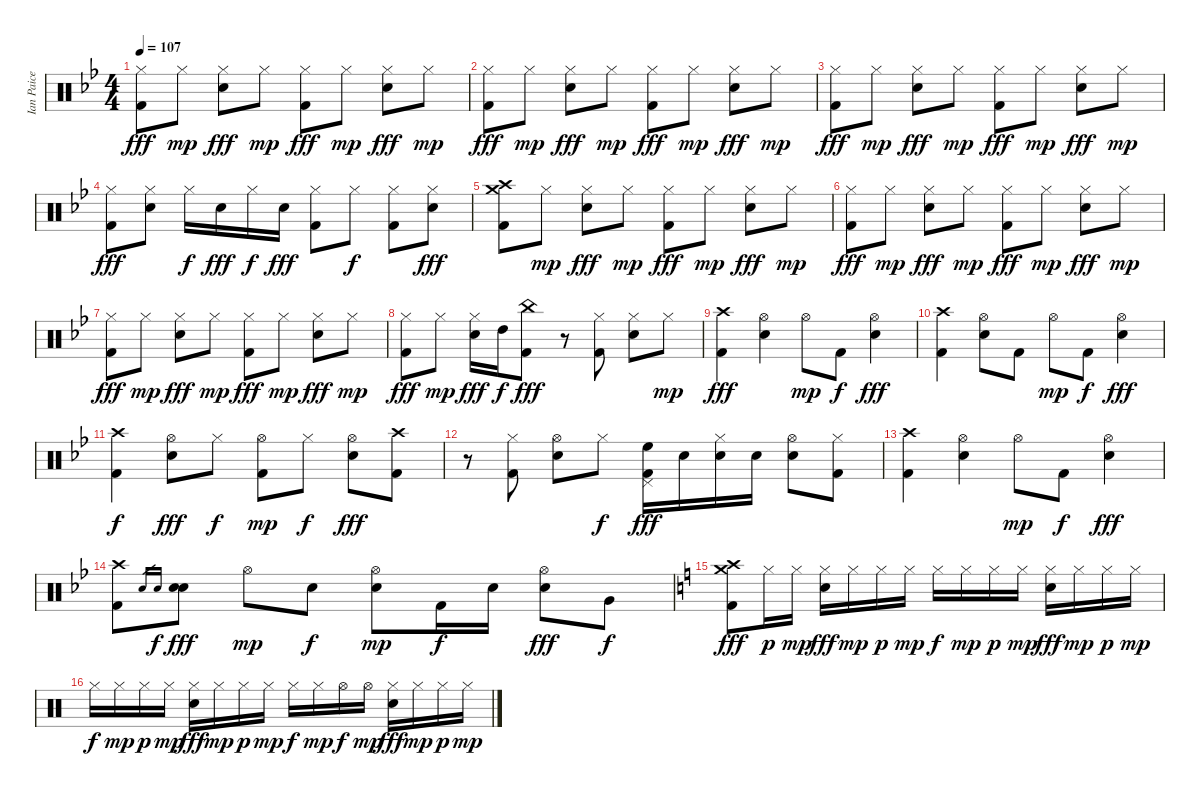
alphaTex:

\track ("Ian Paice" "Ian Paice") {instrument percussion}
\staff {score}
\articulation defaults
\ts (4 4)
\tempo 107
\clef neutral
\ks bb
("Hi-Hat (closed)" "Kick (hit) 2").8{dy fff} "Hi-Hat (closed)".8{dy mp} ("Hi-Hat (closed)" "Electric Snare (hit)").8{dy fff} "Hi-Hat (closed)".8{dy mp} ("Hi-Hat (closed)" "Kick (hit) 2").8{dy fff} "Hi-Hat (closed)".8{dy mp} ("Hi-Hat (closed)" "Electric Snare (hit)").8{dy fff} "Hi-Hat (closed)".8{dy mp} |
("Hi-Hat (closed)" "Kick (hit) 2").8{dy fff} "Hi-Hat (closed)".8{dy mp} ("Hi-Hat (closed)" "Electric Snare (hit)").8{dy fff} "Hi-Hat (closed)".8{dy mp} ("Hi-Hat (closed)" "Kick (hit) 2").8{dy fff} "Hi-Hat (closed)".8{dy mp} ("Hi-Hat (closed)" "Electric Snare (hit)").8{dy fff} "Hi-Hat (closed)".8{dy mp} |
("Hi-Hat (closed)" "Kick (hit) 2").8{dy fff} "Hi-Hat (closed)".8{dy mp} ("Hi-Hat (closed)" "Electric Snare (hit)").8{dy fff} "Hi-Hat (closed)".8{dy mp} ("Hi-Hat (closed)" "Kick (hit) 2").8{dy fff} "Hi-Hat (closed)".8{dy mp} ("Hi-Hat (closed)" "Electric Snare (hit)").8{dy fff} "Hi-Hat (closed)".8{dy mp} |
("Hi-Hat (closed)" "Kick (hit) 2").8{dy fff} ("Hi-Hat (closed)" "Electric Snare (hit)").8 "Hi-Hat (closed)".16{dy f} "Electric Snare (hit)".16{dy fff} "Hi-Hat (closed)".16{dy f} "Electric Snare (hit)".16{dy fff} ("Hi-Hat (closed)" "Kick (hit) 2").8 "Hi-Hat (closed)".8{dy f} ("Hi-Hat (closed)" "Kick (hit) 2").8 ("Hi-Hat (closed)" "Electric Snare (hit)").8{dy fff} |
("Crash high (hit)" "Crash medium (hit)" "Kick (hit) 2").8 "Hi-Hat (closed)".8{dy mp} ("Hi-Hat (closed)" "Electric Snare (hit)").8{dy fff} "Hi-Hat (closed)".8{dy mp} ("Hi-Hat (closed)" "Kick (hit) 2").8{dy fff} "Hi-Hat (closed)".8{dy mp} ("Hi-Hat (closed)" "Electric Snare (hit)").8{dy fff} "Hi-Hat (closed)".8{dy mp} |
("Hi-Hat (closed)" "Kick (hit) 2").8{dy fff} "Hi-Hat (closed)".8{dy mp} ("Hi-Hat (closed)" "Electric Snare (hit)").8{dy fff} "Hi-Hat (closed)".8{dy mp} ("Hi-Hat (closed)" "Kick (hit) 2").8{dy fff} "Hi-Hat (closed)".8{dy mp} ("Hi-Hat (closed)" "Electric Snare (hit)").8{dy fff} "Hi-Hat (closed)".8{dy mp} |
("Hi-Hat (closed)" "Kick (hit) 2").8{dy fff} "Hi-Hat (closed)".8{dy mp} ("Hi-Hat (closed)" "Electric Snare (hit)").8{dy fff} "Hi-Hat (closed)".8{dy mp} ("Hi-Hat (closed)" "Kick (hit) 2").8{dy fff} "Hi-Hat (closed)".8{dy mp} ("Hi-Hat (closed)" "Electric Snare (hit)").8{dy fff} "Hi-Hat (closed)".8{dy mp} |
("Hi-Hat (closed)" "Kick (hit) 2").8{dy fff} "Hi-Hat (closed)".8{dy mp} ("Hi-Hat (closed)" "Electric Snare (hit)").16{dy fff} "High Tom (hit)".16{dy f} ("China (hit)" "Kick (hit) 2").8{dy fff} r.8 ("Hi-Hat (closed)" "Kick (hit) 2").8 ("Hi-Hat (closed)" "Electric Snare (hit)").8 "Hi-Hat (closed)".8{dy mp} |
("Crash high (hit)" "Kick (hit) 2").4{dy fff} ("Hi-Hat (open)" "Electric Snare (hit)").4 "Hi-Hat (open)".8{dy mp} "Kick (hit) 2".8{dy f} ("Hi-Hat (open)" "Electric Snare (hit)").4{dy fff} |
("Crash high (hit)" "Kick (hit) 2").4 ("Hi-Hat (open)" "Electric Snare (hit)").8 "Kick (hit) 2".8 "Hi-Hat (open)".8{dy mp} "Kick (hit) 2".8{dy f} ("Hi-Hat (open)" "Electric Snare (hit)").4{dy fff} |
("Crash high (hit)" "Kick (hit) 2").4{dy f} ("Hi-Hat (open)" "Electric Snare (hit)").8{dy fff} "Hi-Hat (closed)".8{dy f} ("Hi-Hat (open)" "Kick (hit) 2").8{dy mp} "Hi-Hat (closed)".8{dy f} ("Hi-Hat (open)" "Electric Snare (hit)").8{dy fff} ("Crash high (hit)" "Kick (hit) 2").8 |
r.8 ("Hi-Hat (closed)" "Kick (hit) 2").8 ("Hi-Hat (open)" "Electric Snare (hit)").8 "Hi-Hat (closed)".8{dy f} ("Pedal Hi-Hat (hit)" "High Floor Tom (hit)" "Kick (hit) 2").16{dy fff} "Electric Snare (hit)".16 ("Hi-Hat (closed)" "Electric Snare (hit)").16 "Electric Snare (hit)".16 ("Hi-Hat (open)" "Electric Snare (hit)").8 ("Hi-Hat (closed)" "Kick (hit) 2").8 |
("Crash high (hit)" "Kick (hit) 2").4 ("Hi-Hat (open)" "Electric Snare (hit)").4 "Hi-Hat (open)".8{dy mp} "Kick (hit) 2".8{dy f} ("Hi-Hat (open)" "Electric Snare (hit)").4{dy fff} |
("Crash high (hit)" "Kick (hit) 2").8 "Electric Snare (hit)".16{gr} "Electric Snare (hit)".16{gr dy f} ("Electric Snare (hit)" "Electric Snare (hit)").8{dy fff} "Hi-Hat (open)".8{dy mp} "Electric Snare (hit)".8{dy f} ("Hi-Hat (open)" "Electric Snare (hit)").8{dy mp} "Kick (hit) 2".16{dy f} "Electric Snare (hit)".16 ("Hi-Hat (open)" "Electric Snare (hit)").8{dy fff} "Very Low Tom (hit)".8{dy f} |
\ks c
("Crash medium (hit)" "Crash high (hit)" "Kick (hit) 2").8{dy fff} "Hi-Hat (closed)".16{dy p} "Hi-Hat (closed)".16{dy mp} ("Hi-Hat (closed)" "Electric Snare (hit)").16{dy fff} "Hi-Hat (closed)".16{dy mp} "Hi-Hat (closed)".16{dy p} "Hi-Hat (closed)".16{dy mp} "Hi-Hat (closed)".16{dy f} "Hi-Hat (closed)".16{dy mp} "Hi-Hat (closed)".16{dy p} "Hi-Hat (closed)".16{dy mp} ("Hi-Hat (closed)" "Electric Snare (hit)").16{dy fff} "Hi-Hat (closed)".16{dy mp} "Hi-Hat (closed)".16{dy p} "Hi-Hat (closed)".16{dy mp} |
"Hi-Hat (closed)".16{dy f} "Hi-Hat (closed)".16{dy mp} "Hi-Hat (closed)".16{dy p} "Hi-Hat (closed)".16{dy mp} ("Hi-Hat (closed)" "Electric Snare (hit)").16{dy fff} "Hi-Hat (closed)".16{dy mp} "Hi-Hat (closed)".16{dy p} "Hi-Hat (closed)".16{dy mp} "Hi-Hat (closed)".16{dy f} "Hi-Hat (closed)".16{dy mp} "Hi-Hat (open)".16{dy f} "Hi-Hat (open)".16{dy mp} ("Hi-Hat (closed)" "Electric Snare (hit)").16{dy fff} "Hi-Hat (closed)".16{dy mp} "Hi-Hat (closed)".16{dy p} "Hi-Hat (closed)".16{dy mp}
